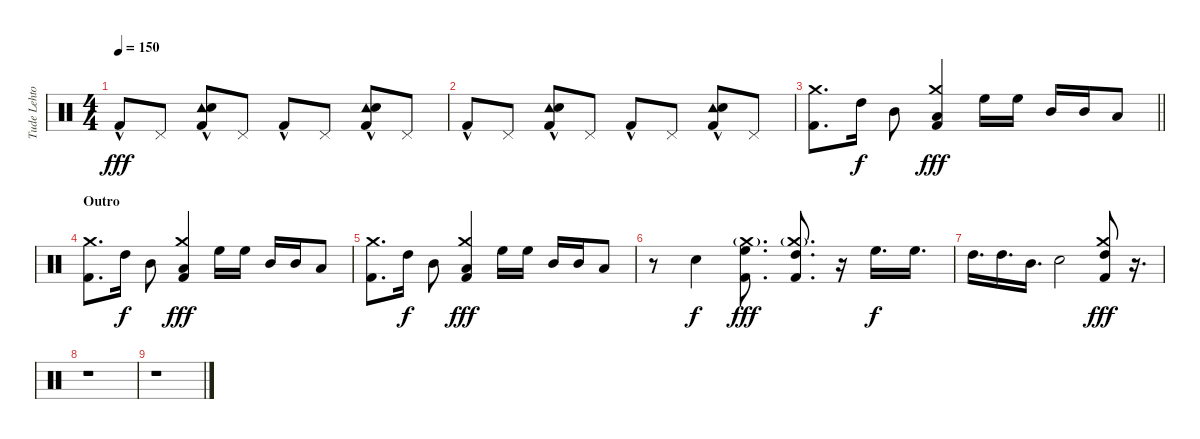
\track ("Tude Lehtonen" "Tude Lehto") {instrument percussion}
\staff {score}
\articulation defaults
\ts (4 4)
\tempo 150
\clef neutral
\ks c "Kick (hit) 2"{hac}.8{dy fff} "Pedal Hi-Hat (hit)".8
("Tambourine (hit)" "Snare (hit) 2" "Kick (hit) 2"{hac}).8 "Pedal Hi-Hat (hit)".8 "Kick (hit) 2"{hac}.8 "Pedal Hi-Hat (hit)".8 ("Tambourine (hit)" "Snare (hit) 2" "Kick (hit) 2"{hac}).8 "Pedal Hi-Hat (hit)".8 |
"Kick (hit) 2"{hac}.8 "Pedal Hi-Hat (hit)".8 ("Tambourine (hit)" "Snare (hit) 2" "Kick (hit) 2"{hac}).8 "Pedal Hi-Hat (hit)".8 "Kick (hit) 2"{hac}.8 "Pedal Hi-Hat (hit)".8 ("Tambourine (hit)" "Snare (hit) 2" "Kick (hit) 2"{hac}).8 "Pedal Hi-Hat (hit)".8 |
\barLineRight lightlight
("Crash medium (hit)" "Kick (hit) 2").8{d} "High Tom (hit)".16{dy f} "Mid Tom (hit)".8 ("Crash medium (hit)" "Low Tom (hit)" "Kick (hit) 2").4{dy fff} "High Floor Tom (hit)".16 "High Floor Tom (hit)".16 "Mid Tom (hit)".16 "Mid Tom (hit)".16 "Low Tom (hit)".8 |
\section ("" "Outro")
("Crash medium (hit)" "Kick (hit) 2").8{d} "High Tom (hit)".16{dy f} "Mid Tom (hit)".8 ("Crash medium (hit)" "Low Tom (hit)" "Kick (hit) 2").4{dy fff} "High Floor Tom (hit)".16 "High Floor Tom (hit)".16 "Mid Tom (hit)".16 "Mid Tom (hit)".16 "Low Tom (hit)".8 |
("Crash medium (hit)" "Kick (hit) 2").8{d} "High Tom (hit)".16{dy f} "Mid Tom (hit)".8 ("Crash medium (hit)" "Low Tom (hit)" "Kick (hit) 2").4{dy fff} "High Floor Tom (hit)".16 "High Floor Tom (hit)".16 "Mid Tom (hit)".16 "Mid Tom (hit)".16 "Low Tom (hit)".8 |
r.8 "Electric Snare (hit)".4{dy f} ("Crash medium (hit)"{g} "High Floor Tom (hit)" "Kick (hit) 2").8{d dy fff} ("Crash medium (hit)"{g} "High Tom (hit)" "Kick (hit) 2").8{d} r.16 "High Floor Tom (hit)".16{d dy f} "High Floor Tom (hit)".16{d} |
"High Tom (hit)".16{d} "High Tom (hit)".16{d} "Mid Tom (hit)".16{d} "Electric Snare (hit)".2 ("Crash medium (hit)" "High Tom (hit)" "Kick (hit) 2").8{dy fff} r.16{d} |
r.1 |
r.1
